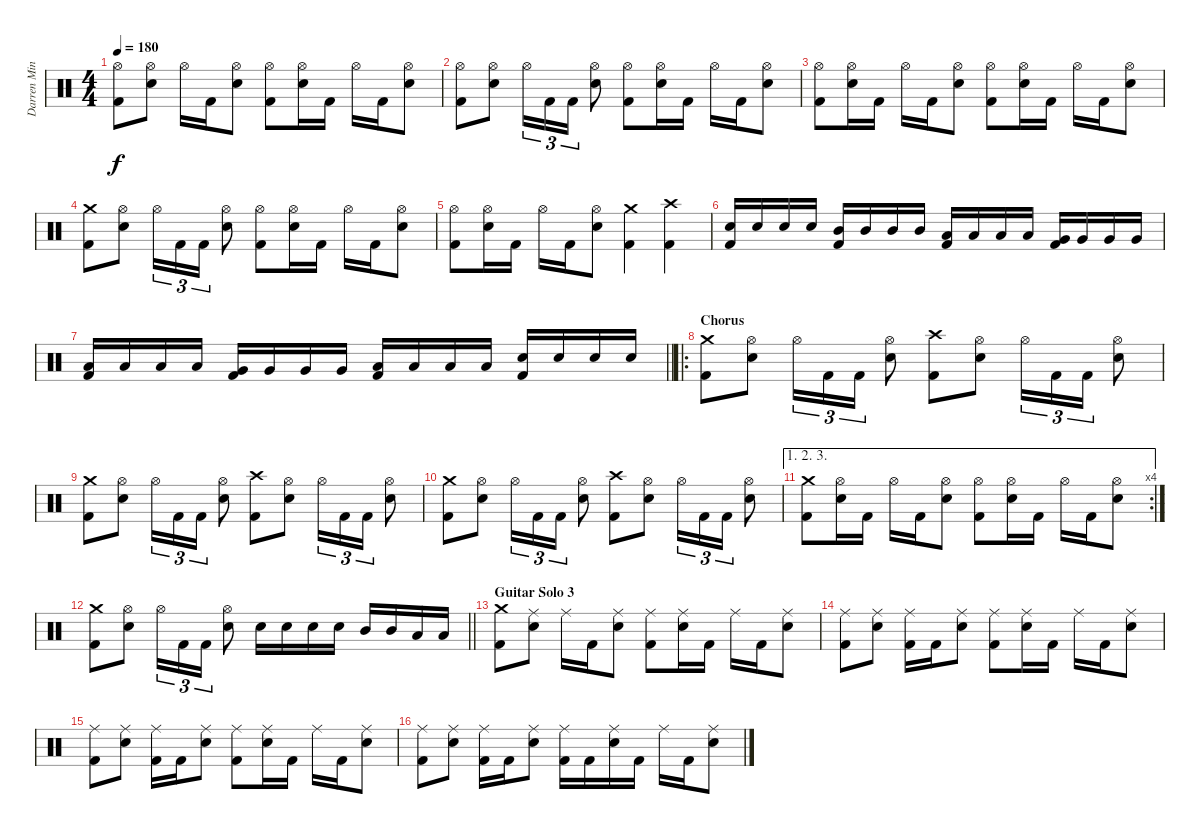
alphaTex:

\track ("Darren Minter" "Darren Min") {instrument percussion}
\staff {score}
\articulation defaults
\ts (4 4)
\tempo 180
\clef neutral
\ks c
("Hi-Hat (open)" "Kick (hit) 2").8{dy f} ("Hi-Hat (open)" "Electric Snare (hit)").8 "Hi-Hat (open)".16 "Kick (hit) 2".16 ("Hi-Hat (open)" "Electric Snare (hit)").8 ("Hi-Hat (open)" "Kick (hit) 2").8 ("Hi-Hat (open)" "Electric Snare (hit)").16 "Kick (hit) 2".16 "Hi-Hat (open)".16 "Kick (hit) 2".16 ("Hi-Hat (open)" "Electric Snare (hit)").8 |
("Hi-Hat (open)" "Kick (hit) 2").8 ("Hi-Hat (open)" "Electric Snare (hit)").8 "Hi-Hat (open)".16{tu (3 2)} "Kick (hit) 2".16{tu (3 2)} "Kick (hit) 2".16{tu (3 2)} ("Hi-Hat (open)" "Electric Snare (hit)").8 ("Hi-Hat (open)" "Kick (hit) 2").8 ("Hi-Hat (open)" "Electric Snare (hit)").16 "Kick (hit) 2".16 "Hi-Hat (open)".16 "Kick (hit) 2".16 ("Hi-Hat (open)" "Electric Snare (hit)").8 |
("Hi-Hat (open)" "Kick (hit) 2").8 ("Hi-Hat (open)" "Electric Snare (hit)").16 "Kick (hit) 2".16 "Hi-Hat (open)".16 "Kick (hit) 2".16 ("Hi-Hat (open)" "Electric Snare (hit)").8 ("Hi-Hat (open)" "Kick (hit) 2").8 ("Hi-Hat (open)" "Electric Snare (hit)").16 "Kick (hit) 2".16 "Hi-Hat (open)".16 "Kick (hit) 2".16 ("Hi-Hat (open)" "Electric Snare (hit)").8 |
("Crash medium (hit)" "Kick (hit) 2").8 ("Hi-Hat (open)" "Electric Snare (hit)").8 "Hi-Hat (open)".16{tu (3 2)} "Kick (hit) 2".16{tu (3 2)} "Kick (hit) 2".16{tu (3 2)} ("Hi-Hat (open)" "Electric Snare (hit)").8 ("Hi-Hat (open)" "Kick (hit) 2").8 ("Hi-Hat (open)" "Electric Snare (hit)").16 "Kick (hit) 2".16 "Hi-Hat (open)".16 "Kick (hit) 2".16 ("Hi-Hat (open)" "Electric Snare (hit)").8 |
("Hi-Hat (open)" "Kick (hit) 2").8 ("Hi-Hat (open)" "Electric Snare (hit)").16 "Kick (hit) 2".16 "Hi-Hat (open)".16 "Kick (hit) 2".16 ("Hi-Hat (open)" "Electric Snare (hit)").8 ("Crash medium (hit)" "Kick (hit) 2").4 ("Crash high (hit)" "Kick (hit) 2").4 |
("Electric Snare (hit)" "Kick (hit) 2").16 "Electric Snare (hit)".16 "Electric Snare (hit)".16 "Electric Snare (hit)".16 ("Mid Tom (hit)" "Kick (hit) 2").16 "Mid Tom (hit)".16 "Mid Tom (hit)".16 "Mid Tom (hit)".16 ("Low Tom (hit)" "Kick (hit) 2").16 "Low Tom (hit)".16 "Low Tom (hit)".16 "Low Tom (hit)".16 ("Very Low Tom (hit)" "Kick (hit) 2").16 "Very Low Tom (hit)".16 "Very Low Tom (hit)".16 "Very Low Tom (hit)".16 |
\barLineRight lightlight
("Low Tom (hit)" "Kick (hit) 2").16 "Low Tom (hit)".16 "Low Tom (hit)".16 "Low Tom (hit)".16 ("Very Low Tom (hit)" "Kick (hit) 2").16 "Very Low Tom (hit)".16 "Very Low Tom (hit)".16 "Very Low Tom (hit)".16 ("Low Floor Tom (hit)" "Kick (hit) 2").16 "Low Floor Tom (hit)".16 "Low Floor Tom (hit)".16 "Low Floor Tom (hit)".16 ("Electric Snare (hit)" "Kick (hit) 2").16 "Electric Snare (hit)".16 "Electric Snare (hit)".16 "Electric Snare (hit)".16 |
\ro
\section ("" "Chorus")
("Crash medium (hit)" "Kick (hit) 2").8 ("Hi-Hat (open)" "Electric Snare (hit)").8 "Hi-Hat (open)".16{tu (3 2)} "Kick (hit) 2".16{tu (3 2)} "Kick (hit) 2".16{tu (3 2)} ("Hi-Hat (open)" "Electric Snare (hit)").8 ("Crash high (hit)" "Kick (hit) 2").8 ("Hi-Hat (open)" "Electric Snare (hit)").8 "Hi-Hat (open)".16{tu (3 2)} "Kick (hit) 2".16{tu (3 2)} "Kick (hit) 2".16{tu (3 2)} ("Hi-Hat (open)" "Electric Snare (hit)").8 |
("Crash medium (hit)" "Kick (hit) 2").8 ("Hi-Hat (open)" "Electric Snare (hit)").8 "Hi-Hat (open)".16{tu (3 2)} "Kick (hit) 2".16{tu (3 2)} "Kick (hit) 2".16{tu (3 2)} ("Hi-Hat (open)" "Electric Snare (hit)").8 ("Crash high (hit)" "Kick (hit) 2").8 ("Hi-Hat (open)" "Electric Snare (hit)").8 "Hi-Hat (open)".16{tu (3 2)} "Kick (hit) 2".16{tu (3 2)} "Kick (hit) 2".16{tu (3 2)} ("Hi-Hat (open)" "Electric Snare (hit)").8 |
("Crash medium (hit)" "Kick (hit) 2").8 ("Hi-Hat (open)" "Electric Snare (hit)").8 "Hi-Hat (open)".16{tu (3 2)} "Kick (hit) 2".16{tu (3 2)} "Kick (hit) 2".16{tu (3 2)} ("Hi-Hat (open)" "Electric Snare (hit)").8 ("Crash high (hit)" "Kick (hit) 2").8 ("Hi-Hat (open)" "Electric Snare (hit)").8 "Hi-Hat (open)".16{tu (3 2)} "Kick (hit) 2".16{tu (3 2)} "Kick (hit) 2".16{tu (3 2)} ("Hi-Hat (open)" "Electric Snare (hit)").8 |
\ae (1 2 3)
\rc 4
("Crash medium (hit)" "Kick (hit) 2").8 ("Hi-Hat (open)" "Electric Snare (hit)").16 "Kick (hit) 2".16 "Hi-Hat (open)".16 "Kick (hit) 2".16 ("Hi-Hat (open)" "Electric Snare (hit)").8 ("Hi-Hat (open)" "Kick (hit) 2").8 ("Hi-Hat (open)" "Electric Snare (hit)").16 "Kick (hit) 2".16 "Hi-Hat (open)".16 "Kick (hit) 2".16 ("Hi-Hat (open)" "Electric Snare (hit)").8 |
\barLineRight lightlight
("Crash medium (hit)" "Kick (hit) 2").8 ("Hi-Hat (open)" "Electric Snare (hit)").8 "Hi-Hat (open)".16{tu (3 2)} "Kick (hit) 2".16{tu (3 2)} "Kick (hit) 2".16{tu (3 2)} ("Hi-Hat (open)" "Electric Snare (hit)").8 "Electric Snare (hit)".16 "Electric Snare (hit)".16 "Electric Snare (hit)".16 "Electric Snare (hit)".16 "Mid Tom (hit)".16 "Mid Tom (hit)".16 "Low Tom (hit)".16 "Low Tom (hit)".16 |
\section ("" "Guitar Solo 3")
("Crash medium (hit)" "Kick (hit) 2").8 ("Ride (middle)" "Electric Snare (hit)").8 "Ride (middle)".16 "Kick (hit) 2".16 ("Ride (middle)" "Electric Snare (hit)").8 ("Ride (middle)" "Kick (hit) 2").8 ("Ride (middle)" "Electric Snare (hit)").16 "Kick (hit) 2".16 "Ride (middle)".16 "Kick (hit) 2".16 ("Ride (middle)" "Electric Snare (hit)").8 |
("Ride (middle)" "Kick (hit) 2").8 ("Ride (middle)" "Electric Snare (hit)").8 ("Ride (middle)" "Kick (hit) 2").16 "Kick (hit) 2".16 ("Ride (middle)" "Electric Snare (hit)").8 ("Ride (middle)" "Kick (hit) 2").8 ("Ride (middle)" "Electric Snare (hit)").16 "Kick (hit) 2".16 "Ride (middle)".16 "Kick (hit) 2".16 ("Ride (middle)" "Electric Snare (hit)").8 |
("Ride (middle)" "Kick (hit) 2").8 ("Ride (middle)" "Electric Snare (hit)").8 ("Ride (middle)" "Kick (hit) 2").16 "Kick (hit) 2".16 ("Ride (middle)" "Electric Snare (hit)").8 ("Ride (middle)" "Kick (hit) 2").8 ("Ride (middle)" "Electric Snare (hit)").16 "Kick (hit) 2".16 "Ride (middle)".16 "Kick (hit) 2".16 ("Ride (middle)" "Electric Snare (hit)").8 |
("Ride (middle)" "Kick (hit) 2").8 ("Ride (middle)" "Electric Snare (hit)").8 ("Ride (middle)" "Kick (hit) 2").16 "Kick (hit) 2".16 ("Ride (middle)" "Electric Snare (hit)").8 ("Ride (middle)" "Kick (hit) 2").16 "Kick (hit) 2".16 ("Ride (middle)" "Electric Snare (hit)").16 "Kick (hit) 2".16 "Ride (middle)".16 "Kick (hit) 2".16 ("Ride (middle)" "Electric Snare (hit)").8
